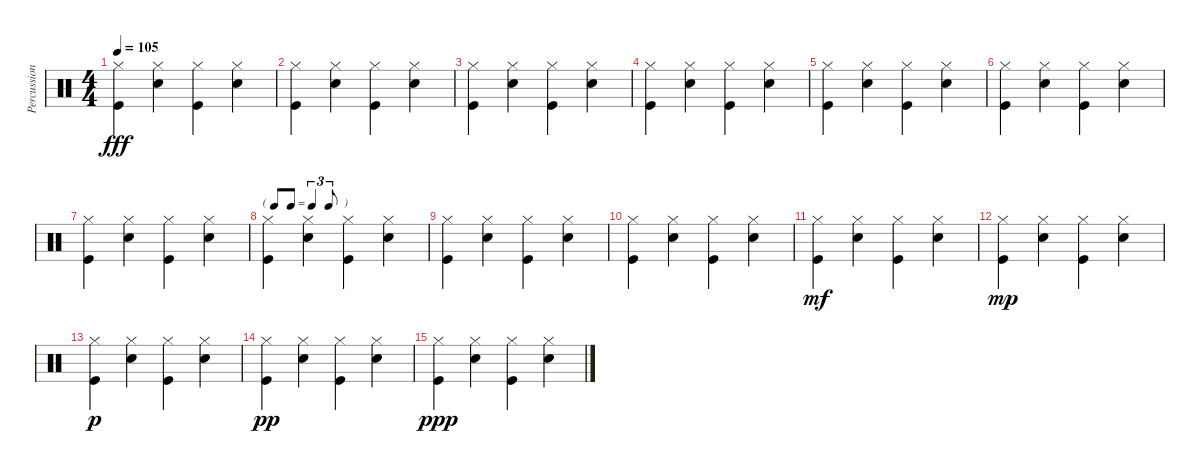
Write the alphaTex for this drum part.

\track ("Percussion" "Percussion") {instrument percussion}
\staff {score}
\articulation defaults
\ts (4 4)
\tempo 105
\clef neutral
\ks c
("Hi-Hat (closed)" "Kick (hit)").4{dy fff} ("Hi-Hat (closed)" "Snare (hit) 2").4 ("Hi-Hat (closed)" "Kick (hit)").4 ("Hi-Hat (closed)" "Snare (hit) 2").4 |
("Hi-Hat (closed)" "Kick (hit)").4 ("Hi-Hat (closed)" "Snare (hit) 2").4 ("Hi-Hat (closed)" "Kick (hit)").4 ("Hi-Hat (closed)" "Snare (hit) 2").4 |
("Hi-Hat (closed)" "Kick (hit)").4 ("Hi-Hat (closed)" "Snare (hit) 2").4 ("Hi-Hat (closed)" "Kick (hit)").4 ("Hi-Hat (closed)" "Snare (hit) 2").4 |
("Hi-Hat (closed)" "Kick (hit)").4 ("Hi-Hat (closed)" "Snare (hit) 2").4 ("Hi-Hat (closed)" "Kick (hit)").4 ("Hi-Hat (closed)" "Snare (hit) 2").4 |
("Hi-Hat (closed)" "Kick (hit)").4 ("Hi-Hat (closed)" "Snare (hit) 2").4 ("Hi-Hat (closed)" "Kick (hit)").4 ("Hi-Hat (closed)" "Snare (hit) 2").4 |
("Hi-Hat (closed)" "Kick (hit)").4 ("Hi-Hat (closed)" "Snare (hit) 2").4 ("Hi-Hat (closed)" "Kick (hit)").4 ("Hi-Hat (closed)" "Snare (hit) 2").4 |
("Hi-Hat (closed)" "Kick (hit)").4 ("Hi-Hat (closed)" "Snare (hit) 2").4 ("Hi-Hat (closed)" "Kick (hit)").4 ("Hi-Hat (closed)" "Snare (hit) 2").4 |
\tf triplet8th
("Hi-Hat (closed)" "Kick (hit)").4 ("Hi-Hat (closed)" "Snare (hit) 2").4 ("Hi-Hat (closed)" "Kick (hit)").4 ("Hi-Hat (closed)" "Snare (hit) 2").4 |
("Hi-Hat (closed)" "Kick (hit)").4 ("Hi-Hat (closed)" "Snare (hit) 2").4 ("Hi-Hat (closed)" "Kick (hit)").4 ("Hi-Hat (closed)" "Snare (hit) 2").4 |
("Hi-Hat (closed)" "Kick (hit)").4 ("Hi-Hat (closed)" "Snare (hit) 2").4 ("Hi-Hat (closed)" "Kick (hit)").4 ("Hi-Hat (closed)" "Snare (hit) 2").4 |
("Hi-Hat (closed)" "Kick (hit)").4{dy mf} ("Hi-Hat (closed)" "Snare (hit) 2").4 ("Hi-Hat (closed)" "Kick (hit)").4 ("Hi-Hat (closed)" "Snare (hit) 2").4 |
("Hi-Hat (closed)" "Kick (hit)").4{dy mp} ("Hi-Hat (closed)" "Snare (hit) 2").4 ("Hi-Hat (closed)" "Kick (hit)").4 ("Hi-Hat (closed)" "Snare (hit) 2").4 |
("Hi-Hat (closed)" "Kick (hit)").4{dy p} ("Hi-Hat (closed)" "Snare (hit) 2").4 ("Hi-Hat (closed)" "Kick (hit)").4 ("Hi-Hat (closed)" "Snare (hit) 2").4 |
("Hi-Hat (closed)" "Kick (hit)").4{dy pp} ("Hi-Hat (closed)" "Snare (hit) 2").4 ("Hi-Hat (closed)" "Kick (hit)").4 ("Hi-Hat (closed)" "Snare (hit) 2").4 |
("Hi-Hat (closed)" "Kick (hit)").4{dy ppp} ("Hi-Hat (closed)" "Snare (hit) 2").4 ("Hi-Hat (closed)" "Kick (hit)").4 ("Hi-Hat (closed)" "Snare (hit) 2").4
